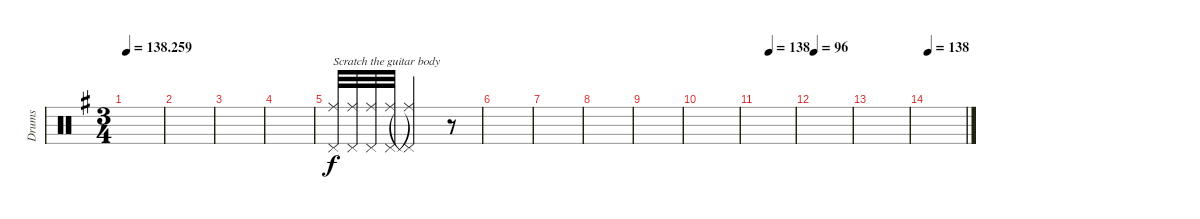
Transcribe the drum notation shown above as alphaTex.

\defaultSystemsLayout 4
\bracketExtendMode groupsimilarinstruments
\otherSystemsTrackNameOrientation horizontal
\track ("Drumkit" "Drums") {instrument percussion}
\staff {score}
\articulation defaults
\ts (3 4)
\scale
0.263823
\tempo
138.259
\accidentals auto
\clef neutral
\ottava regular
\simile none
\ks eminor
|
\scale
0.162161 |
\scale
0.0804253 |
\scale
0.0863964 |
\scale
0.341292 ("Pedal Hi-Hat (hit)"{acc forcenatural} "Ride (middle)"{acc forcenatural}).32{txt "Scratch the guitar body" beam Up} ("Pedal Hi-Hat (hit)"{acc forcenatural} "Ride (middle)"{acc forcenatural}).32{beam Up} ("Pedal Hi-Hat (hit)"{acc forcenatural} "Ride (middle)"{acc forcenatural}).32{beam Up} ("Pedal Hi-Hat (hit)"{acc forcenatural} "Ride (middle)"{acc forcenatural}).32{beam Up} ("Ride (middle)"{t acc forcenatural} "Pedal Hi-Hat (hit)"{t acc forcenatural}).2{beam Up} r.8{beam Up} |
\scale
0.139163 |
\scale
0.222066 |
\scale
0.157435 |
\scale
0.10133 |
\scale
0.191444 |
\scale
0.34509
\tempo (138 0.3125)
|
\scale
0.150718
\tempo 96
|
|
\tempo 138
